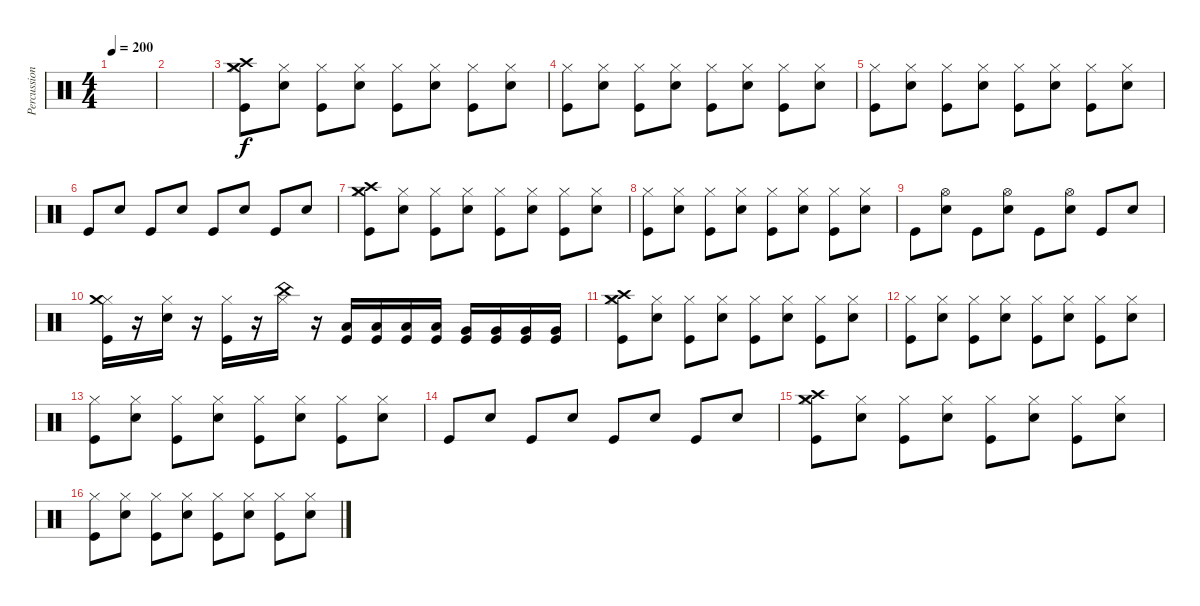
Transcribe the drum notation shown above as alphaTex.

\track ("Percussion" "Percussion") {instrument percussion}
\staff {score}
\articulation defaults
\ts (4 4)
\tempo 200
\clef neutral
\ks c
|
|
("Kick (hit)" "Hi-Hat (closed)" "Crash high (hit)" "Crash medium (hit)").8 ("Electric Snare (hit)" "Hi-Hat (closed)").8 ("Kick (hit)" "Hi-Hat (closed)").8 ("Electric Snare (hit)" "Hi-Hat (closed)").8 ("Kick (hit)" "Hi-Hat (closed)").8 ("Electric Snare (hit)" "Hi-Hat (closed)").8 ("Kick (hit)" "Hi-Hat (closed)").8 ("Electric Snare (hit)" "Hi-Hat (closed)").8 |
("Kick (hit)" "Hi-Hat (closed)").8 ("Electric Snare (hit)" "Hi-Hat (closed)").8 ("Kick (hit)" "Hi-Hat (closed)").8 ("Electric Snare (hit)" "Hi-Hat (closed)").8 ("Kick (hit)" "Hi-Hat (closed)").8 ("Electric Snare (hit)" "Hi-Hat (closed)").8 ("Kick (hit)" "Hi-Hat (closed)").8 ("Electric Snare (hit)" "Hi-Hat (closed)").8 |
("Kick (hit)" "Hi-Hat (closed)").8 ("Electric Snare (hit)" "Hi-Hat (closed)").8 ("Kick (hit)" "Hi-Hat (closed)").8 ("Electric Snare (hit)" "Hi-Hat (closed)").8 ("Kick (hit)" "Hi-Hat (closed)").8 ("Electric Snare (hit)" "Hi-Hat (closed)").8 ("Kick (hit)" "Hi-Hat (closed)").8 ("Electric Snare (hit)" "Hi-Hat (closed)").8 |
"Kick (hit)".8 "Electric Snare (hit)".8 "Kick (hit)".8 "Electric Snare (hit)".8 "Kick (hit)".8 "Electric Snare (hit)".8 "Kick (hit)".8 "Electric Snare (hit)".8 |
("Kick (hit)" "Hi-Hat (closed)" "Crash high (hit)" "Crash medium (hit)").8 ("Electric Snare (hit)" "Hi-Hat (closed)").8 ("Kick (hit)" "Hi-Hat (closed)").8 ("Electric Snare (hit)" "Hi-Hat (closed)").8 ("Kick (hit)" "Hi-Hat (closed)").8 ("Electric Snare (hit)" "Hi-Hat (closed)").8 ("Kick (hit)" "Hi-Hat (closed)").8 ("Electric Snare (hit)" "Hi-Hat (closed)").8 |
("Kick (hit)" "Hi-Hat (closed)").8 ("Electric Snare (hit)" "Hi-Hat (closed)").8 ("Kick (hit)" "Hi-Hat (closed)").8 ("Electric Snare (hit)" "Hi-Hat (closed)").8 ("Kick (hit)" "Hi-Hat (closed)").8 ("Electric Snare (hit)" "Hi-Hat (closed)").8 ("Kick (hit)" "Hi-Hat (closed)").8 ("Electric Snare (hit)" "Hi-Hat (closed)").8 |
"Kick (hit)".8 ("Electric Snare (hit)" "Hi-Hat (open)").8 "Kick (hit)".8 ("Electric Snare (hit)" "Hi-Hat (open)").8 "Kick (hit)".8 ("Electric Snare (hit)" "Hi-Hat (open)").8 "Kick (hit)".8 "Electric Snare (hit)".8 |
("Kick (hit)" "Hi-Hat (closed)" "Crash medium (hit)").16 r.16 ("Electric Snare (hit)" "Hi-Hat (closed)").16 r.16 ("Kick (hit)" "Hi-Hat (closed)").16 r.16 ("China (hit)" "Hi-Hat (closed)").16 r.16 ("Kick (hit)" "Low Tom (hit)").16 ("Kick (hit)" "Low Tom (hit)").16 ("Kick (hit)" "Low Tom (hit)").16 ("Kick (hit)" "Low Tom (hit)").16 ("Kick (hit)" "Very Low Tom (hit)").16 ("Kick (hit)" "Very Low Tom (hit)").16 ("Kick (hit)" "Very Low Tom (hit)").16 ("Kick (hit)" "Very Low Tom (hit)").16 |
("Kick (hit)" "Hi-Hat (closed)" "Crash high (hit)" "Crash medium (hit)").8 ("Electric Snare (hit)" "Hi-Hat (closed)").8 ("Kick (hit)" "Hi-Hat (closed)").8 ("Electric Snare (hit)" "Hi-Hat (closed)").8 ("Kick (hit)" "Hi-Hat (closed)").8 ("Electric Snare (hit)" "Hi-Hat (closed)").8 ("Kick (hit)" "Hi-Hat (closed)").8 ("Electric Snare (hit)" "Hi-Hat (closed)").8 |
("Kick (hit)" "Hi-Hat (closed)").8 ("Electric Snare (hit)" "Hi-Hat (closed)").8 ("Kick (hit)" "Hi-Hat (closed)").8 ("Electric Snare (hit)" "Hi-Hat (closed)").8 ("Kick (hit)" "Hi-Hat (closed)").8 ("Electric Snare (hit)" "Hi-Hat (closed)").8 ("Kick (hit)" "Hi-Hat (closed)").8 ("Electric Snare (hit)" "Hi-Hat (closed)").8 |
("Kick (hit)" "Hi-Hat (closed)").8 ("Electric Snare (hit)" "Hi-Hat (closed)").8 ("Kick (hit)" "Hi-Hat (closed)").8 ("Electric Snare (hit)" "Hi-Hat (closed)").8 ("Kick (hit)" "Hi-Hat (closed)").8 ("Electric Snare (hit)" "Hi-Hat (closed)").8 ("Kick (hit)" "Hi-Hat (closed)").8 ("Electric Snare (hit)" "Hi-Hat (closed)").8 |
"Kick (hit)".8 "Electric Snare (hit)".8 "Kick (hit)".8 "Electric Snare (hit)".8 "Kick (hit)".8 "Electric Snare (hit)".8 "Kick (hit)".8 "Electric Snare (hit)".8 |
("Kick (hit)" "Hi-Hat (closed)" "Crash high (hit)" "Crash medium (hit)").8 ("Electric Snare (hit)" "Hi-Hat (closed)").8 ("Kick (hit)" "Hi-Hat (closed)").8 ("Electric Snare (hit)" "Hi-Hat (closed)").8 ("Kick (hit)" "Hi-Hat (closed)").8 ("Electric Snare (hit)" "Hi-Hat (closed)").8 ("Kick (hit)" "Hi-Hat (closed)").8 ("Electric Snare (hit)" "Hi-Hat (closed)").8 |
("Kick (hit)" "Hi-Hat (closed)").8 ("Electric Snare (hit)" "Hi-Hat (closed)").8 ("Kick (hit)" "Hi-Hat (closed)").8 ("Electric Snare (hit)" "Hi-Hat (closed)").8 ("Kick (hit)" "Hi-Hat (closed)").8 ("Electric Snare (hit)" "Hi-Hat (closed)").8 ("Kick (hit)" "Hi-Hat (closed)").8 ("Electric Snare (hit)" "Hi-Hat (closed)").8
